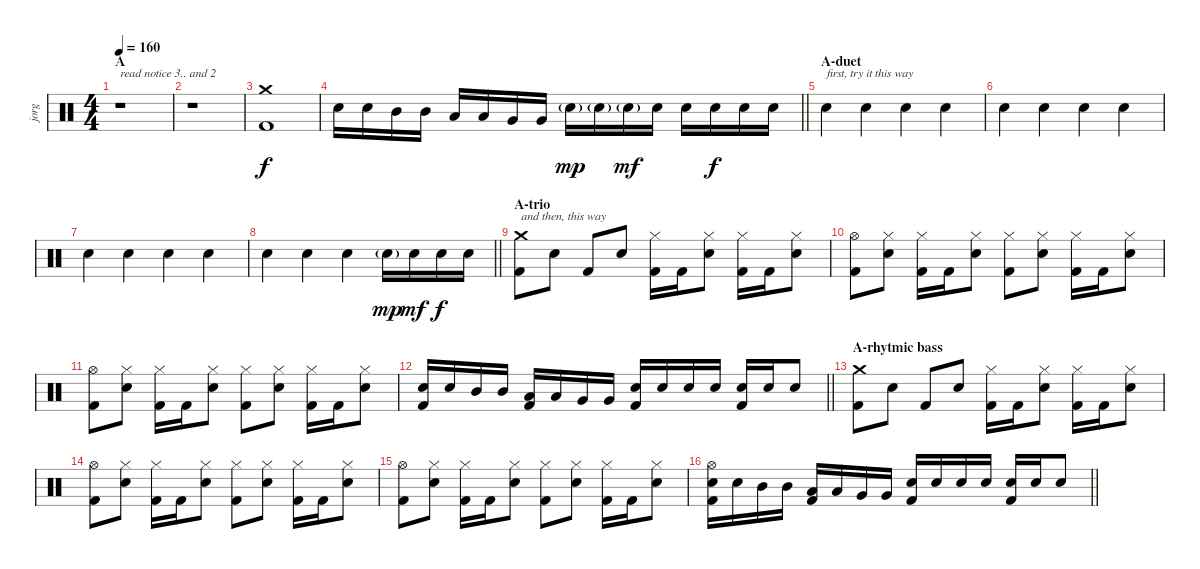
\track ("jorg" "jorg") {instrument percussion}
\staff {score}
\articulation defaults
\ts (4 4)
\section ("" "A")
\tempo 160
\clef neutral
\ks c
r.1{txt "read notice 3.. and 2" dy f} |
r.1 |
("Crash medium (hit)" "Kick (hit) 2").1 |
\barLineRight lightlight "Electric Snare (hit)".16 "Electric Snare (hit)".16 "Mid Tom (hit)".16 "Mid Tom (hit)".16 "Low Tom (hit)".16 "Low Tom (hit)".16 "Very Low Tom (hit)".16 "Very Low Tom (hit)".16 "Electric Snare (hit)"{g}.16{dy mp} "Electric Snare (hit)"{g}.16 "Electric Snare (hit)"{g}.16{dy mf} "Electric Snare (hit)".16 "Electric Snare (hit)".16 "Electric Snare (hit)".16{dy f} "Electric Snare (hit)".16 "Electric Snare (hit)".16
|
\section ("" "A-duet")
"Electric Snare (hit)".4{txt "first, try it this way"} "Electric Snare (hit)".4 "Electric Snare (hit)".4 "Electric Snare (hit)".4 |
"Electric Snare (hit)".4 "Electric Snare (hit)".4 "Electric Snare (hit)".4 "Electric Snare (hit)".4 |
"Electric Snare (hit)".4 "Electric Snare (hit)".4 "Electric Snare (hit)".4 "Electric Snare (hit)".4 |
\barLineRight lightlight "Electric Snare (hit)".4 "Electric Snare (hit)".4 "Electric Snare (hit)".4 "Electric Snare (hit)"{g}.16{dy mp} "Electric Snare (hit)".16{dy mf} "Electric Snare (hit)".16{dy f} "Electric Snare (hit)".16
|
\section ("" "A-trio")
("Crash medium (hit)" "Kick (hit) 2").8{txt "and then, this way"} "Electric Snare (hit)".8 "Kick (hit) 2".8 "Electric Snare (hit)".8 ("Hi-Hat (closed)" "Kick (hit) 2").16 "Kick (hit) 2".16 ("Hi-Hat (closed)" "Electric Snare (hit)").8 ("Hi-Hat (closed)" "Kick (hit) 2").16 "Kick (hit) 2".16 ("Hi-Hat (closed)" "Electric Snare (hit)").8 |
("Hi-Hat (open)" "Kick (hit) 2").8 ("Hi-Hat (closed)" "Electric Snare (hit)").8 ("Hi-Hat (closed)" "Kick (hit) 2").16 "Kick (hit) 2".16 ("Hi-Hat (closed)" "Electric Snare (hit)").8 ("Hi-Hat (closed)" "Kick (hit) 2").8 ("Hi-Hat (closed)" "Electric Snare (hit)").8 ("Hi-Hat (closed)" "Kick (hit) 2").16 "Kick (hit) 2".16 ("Hi-Hat (closed)" "Electric Snare (hit)").8 |
("Hi-Hat (open)" "Kick (hit) 2").8 ("Hi-Hat (closed)" "Electric Snare (hit)").8 ("Hi-Hat (closed)" "Kick (hit) 2").16 "Kick (hit) 2".16 ("Hi-Hat (closed)" "Electric Snare (hit)").8 ("Hi-Hat (closed)" "Kick (hit) 2").8 ("Hi-Hat (closed)" "Electric Snare (hit)").8 ("Hi-Hat (closed)" "Kick (hit) 2").16 "Kick (hit) 2".16 ("Hi-Hat (closed)" "Electric Snare (hit)").8 |
\barLineRight lightlight
("Electric Snare (hit)" "Kick (hit) 2").16 "Electric Snare (hit)".16 "Mid Tom (hit)".16 "Mid Tom (hit)".16 ("Low Tom (hit)" "Kick (hit) 2").16 "Low Tom (hit)".16 "Very Low Tom (hit)".16 "Very Low Tom (hit)".16 ("Electric Snare (hit)" "Kick (hit) 2").16 "Electric Snare (hit)".16 "Electric Snare (hit)".16 "Electric Snare (hit)".16 ("Electric Snare (hit)" "Kick (hit) 2").16 "Electric Snare (hit)".16 "Electric Snare (hit)".8 |
\section ("" "A-rhytmic bass")
("Crash medium (hit)" "Kick (hit) 2").8 "Electric Snare (hit)".8 "Kick (hit) 2".8 "Electric Snare (hit)".8 ("Hi-Hat (closed)" "Kick (hit) 2").16 "Kick (hit) 2".16 ("Hi-Hat (closed)" "Electric Snare (hit)").8 ("Hi-Hat (closed)" "Kick (hit) 2").16 "Kick (hit) 2".16 ("Hi-Hat (closed)" "Electric Snare (hit)").8 |
("Hi-Hat (open)" "Kick (hit) 2").8 ("Hi-Hat (closed)" "Electric Snare (hit)").8 ("Hi-Hat (closed)" "Kick (hit) 2").16 "Kick (hit) 2".16 ("Hi-Hat (closed)" "Electric Snare (hit)").8 ("Hi-Hat (closed)" "Kick (hit) 2").8 ("Hi-Hat (closed)" "Electric Snare (hit)").8 ("Hi-Hat (closed)" "Kick (hit) 2").16 "Kick (hit) 2".16 ("Hi-Hat (closed)" "Electric Snare (hit)").8 |
("Hi-Hat (open)" "Kick (hit) 2").8 ("Hi-Hat (closed)" "Electric Snare (hit)").8 ("Hi-Hat (closed)" "Kick (hit) 2").16 "Kick (hit) 2".16 ("Hi-Hat (closed)" "Electric Snare (hit)").8 ("Hi-Hat (closed)" "Kick (hit) 2").8 ("Hi-Hat (closed)" "Electric Snare (hit)").8 ("Hi-Hat (closed)" "Kick (hit) 2").16 "Kick (hit) 2".16 ("Hi-Hat (closed)" "Electric Snare (hit)").8 |
\barLineRight lightlight
("Hi-Hat (open)" "Electric Snare (hit)" "Kick (hit) 2").16 "Electric Snare (hit)".16 "Mid Tom (hit)".16 "Mid Tom (hit)".16 ("Low Tom (hit)" "Kick (hit) 2").16 "Low Tom (hit)".16 "Very Low Tom (hit)".16 "Very Low Tom (hit)".16 ("Electric Snare (hit)" "Kick (hit) 2").16 "Electric Snare (hit)".16 "Electric Snare (hit)".16 "Electric Snare (hit)".16 ("Electric Snare (hit)" "Kick (hit) 2").16 "Electric Snare (hit)".16 "Electric Snare (hit)".8
